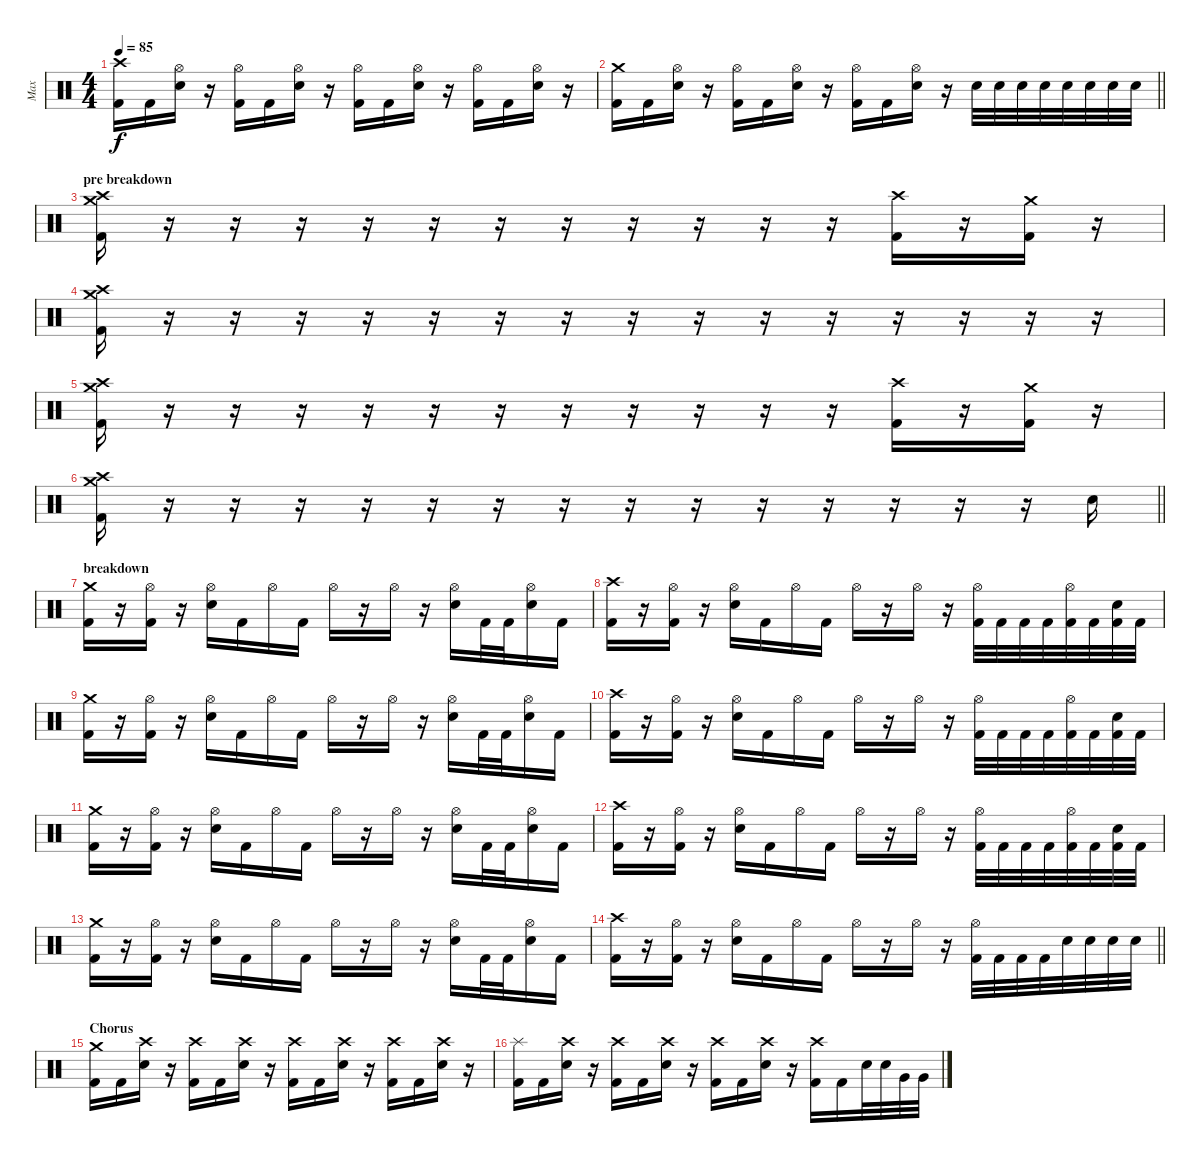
\track ("Max" "Max") {instrument percussion}
\staff {score}
\articulation defaults
\ts (4 4)
\tempo 85
\clef neutral
\ks c
("Crash high (hit)" "Kick (hit) 2").16{dy f} "Kick (hit) 2".16 ("Hi-Hat (open)" "Electric Snare (hit)").16 r.16 ("Hi-Hat (open)" "Kick (hit) 2").16 "Kick (hit) 2".16 ("Hi-Hat (open)" "Electric Snare (hit)").16 r.16 ("Hi-Hat (open)" "Kick (hit) 2").16 "Kick (hit) 2".16 ("Hi-Hat (open)" "Electric Snare (hit)").16 r.16 ("Hi-Hat (open)" "Kick (hit) 2").16 "Kick (hit) 2".16 ("Hi-Hat (open)" "Electric Snare (hit)").16 r.16 |
\barLineRight lightlight
("Crash medium (hit)" "Kick (hit) 2").16 "Kick (hit) 2".16 ("Hi-Hat (open)" "Electric Snare (hit)").16 r.16 ("Hi-Hat (open)" "Kick (hit) 2").16 "Kick (hit) 2".16 ("Hi-Hat (open)" "Electric Snare (hit)").16 r.16 ("Hi-Hat (open)" "Kick (hit) 2").16 "Kick (hit) 2".16 ("Hi-Hat (open)" "Electric Snare (hit)").16 r.16 "Electric Snare (hit)".32 "Electric Snare (hit)".32 "Electric Snare (hit)".32 "Electric Snare (hit)".32 "Electric Snare (hit)".32 "Electric Snare (hit)".32 "Electric Snare (hit)".32 "Electric Snare (hit)".32 |
\section ("" "pre breakdown")
("Crash medium (hit)" "Crash high (hit)" "Kick (hit) 2").16 r.16 r.16 r.16 r.16 r.16 r.16 r.16 r.16 r.16 r.16 r.16 ("Crash high (hit)" "Kick (hit) 2").16 r.16 ("Crash medium (hit)" "Kick (hit) 2").16 r.16 |
("Crash medium (hit)" "Crash high (hit)" "Kick (hit) 2").16 r.16 r.16 r.16 r.16 r.16 r.16 r.16 r.16 r.16 r.16 r.16 r.16 r.16 r.16 r.16 |
("Crash medium (hit)" "Crash high (hit)" "Kick (hit) 2").16 r.16 r.16 r.16 r.16 r.16 r.16 r.16 r.16 r.16 r.16 r.16 ("Crash high (hit)" "Kick (hit) 2").16 r.16 ("Crash medium (hit)" "Kick (hit) 2").16 r.16 |
\barLineRight lightlight
("Crash medium (hit)" "Crash high (hit)" "Kick (hit) 2").16 r.16 r.16 r.16 r.16 r.16 r.16 r.16 r.16 r.16 r.16 r.16 r.16 r.16 r.16 "Electric Snare (hit)".16 |
\section ("" "breakdown")
("Crash medium (hit)" "Kick (hit) 2").16 r.16 ("Hi-Hat (open)" "Kick (hit) 2").16 r.16 ("Hi-Hat (open)" "Electric Snare (hit)").16 "Kick (hit) 2".16 "Hi-Hat (open)".16 "Kick (hit) 2".16 "Hi-Hat (open)".16 r.16 "Hi-Hat (open)".16 r.16 ("Hi-Hat (open)" "Electric Snare (hit)").16 "Kick (hit) 2".32 "Kick (hit) 2".32 ("Hi-Hat (open)" "Electric Snare (hit)").16 "Kick (hit) 2".16 |
("Crash high (hit)" "Kick (hit) 2").16 r.16 ("Hi-Hat (open)" "Kick (hit) 2").16 r.16 ("Hi-Hat (open)" "Electric Snare (hit)").16 "Kick (hit) 2".16 "Hi-Hat (open)".16 "Kick (hit) 2".16 "Hi-Hat (open)".16 r.16 "Hi-Hat (open)".16 r.16 ("Hi-Hat (open)" "Kick (hit) 2").32 "Kick (hit) 2".32 "Kick (hit) 2".32 "Kick (hit) 2".32 ("Hi-Hat (open)" "Kick (hit) 2").32 "Kick (hit) 2".32 ("Electric Snare (hit)" "Kick (hit) 2").32 "Kick (hit) 2".32 |
("Crash medium (hit)" "Kick (hit) 2").16 r.16 ("Hi-Hat (open)" "Kick (hit) 2").16 r.16 ("Hi-Hat (open)" "Electric Snare (hit)").16 "Kick (hit) 2".16 "Hi-Hat (open)".16 "Kick (hit) 2".16 "Hi-Hat (open)".16 r.16 "Hi-Hat (open)".16 r.16 ("Hi-Hat (open)" "Electric Snare (hit)").16 "Kick (hit) 2".32 "Kick (hit) 2".32 ("Hi-Hat (open)" "Electric Snare (hit)").16 "Kick (hit) 2".16 |
("Crash high (hit)" "Kick (hit) 2").16 r.16 ("Hi-Hat (open)" "Kick (hit) 2").16 r.16 ("Hi-Hat (open)" "Electric Snare (hit)").16 "Kick (hit) 2".16 "Hi-Hat (open)".16 "Kick (hit) 2".16 "Hi-Hat (open)".16 r.16 "Hi-Hat (open)".16 r.16 ("Hi-Hat (open)" "Kick (hit) 2").32 "Kick (hit) 2".32 "Kick (hit) 2".32 "Kick (hit) 2".32 ("Hi-Hat (open)" "Kick (hit) 2").32 "Kick (hit) 2".32 ("Electric Snare (hit)" "Kick (hit) 2").32 "Kick (hit) 2".32 |
("Crash medium (hit)" "Kick (hit) 2").16 r.16 ("Hi-Hat (open)" "Kick (hit) 2").16 r.16 ("Hi-Hat (open)" "Electric Snare (hit)").16 "Kick (hit) 2".16 "Hi-Hat (open)".16 "Kick (hit) 2".16 "Hi-Hat (open)".16 r.16 "Hi-Hat (open)".16 r.16 ("Hi-Hat (open)" "Electric Snare (hit)").16 "Kick (hit) 2".32 "Kick (hit) 2".32 ("Hi-Hat (open)" "Electric Snare (hit)").16 "Kick (hit) 2".16 |
("Crash high (hit)" "Kick (hit) 2").16 r.16 ("Hi-Hat (open)" "Kick (hit) 2").16 r.16 ("Hi-Hat (open)" "Electric Snare (hit)").16 "Kick (hit) 2".16 "Hi-Hat (open)".16 "Kick (hit) 2".16 "Hi-Hat (open)".16 r.16 "Hi-Hat (open)".16 r.16 ("Hi-Hat (open)" "Kick (hit) 2").32 "Kick (hit) 2".32 "Kick (hit) 2".32 "Kick (hit) 2".32 ("Hi-Hat (open)" "Kick (hit) 2").32 "Kick (hit) 2".32 ("Electric Snare (hit)" "Kick (hit) 2").32 "Kick (hit) 2".32 |
("Crash medium (hit)" "Kick (hit) 2").16 r.16 ("Hi-Hat (open)" "Kick (hit) 2").16 r.16 ("Hi-Hat (open)" "Electric Snare (hit)").16 "Kick (hit) 2".16 "Hi-Hat (open)".16 "Kick (hit) 2".16 "Hi-Hat (open)".16 r.16 "Hi-Hat (open)".16 r.16 ("Hi-Hat (open)" "Electric Snare (hit)").16 "Kick (hit) 2".32 "Kick (hit) 2".32 ("Hi-Hat (open)" "Electric Snare (hit)").16 "Kick (hit) 2".16 |
\barLineRight lightlight
("Crash high (hit)" "Kick (hit) 2").16 r.16 ("Hi-Hat (open)" "Kick (hit) 2").16 r.16 ("Hi-Hat (open)" "Electric Snare (hit)").16 "Kick (hit) 2".16 "Hi-Hat (open)".16 "Kick (hit) 2".16 "Hi-Hat (open)".16 r.16 "Hi-Hat (open)".16 r.16 ("Hi-Hat (open)" "Kick (hit) 2").32 "Kick (hit) 2".32 "Kick (hit) 2".32 "Kick (hit) 2".32 "Electric Snare (hit)".32 "Electric Snare (hit)".32 "Electric Snare (hit)".32 "Electric Snare (hit)".32 |
\section ("" "Chorus")
("Crash medium (hit)" "Kick (hit) 2").16 "Kick (hit) 2".16 ("Crash high (hit)" "Electric Snare (hit)").16 r.16 ("Crash high (hit)" "Kick (hit) 2").16 "Kick (hit) 2".16 ("Crash high (hit)" "Electric Snare (hit)").16 r.16 ("Crash high (hit)" "Kick (hit) 2").16 "Kick (hit) 2".16 ("Crash high (hit)" "Electric Snare (hit)").16 r.16 ("Crash high (hit)" "Kick (hit) 2").16 "Kick (hit) 2".16 ("Crash high (hit)" "Electric Snare (hit)").16 r.16 |
("Splash (hit)" "Kick (hit) 2").16 "Kick (hit) 2".16 ("Crash high (hit)" "Electric Snare (hit)").16 r.16 ("Crash high (hit)" "Kick (hit) 2").16 "Kick (hit) 2".16 ("Crash high (hit)" "Electric Snare (hit)").16 r.16 ("Crash high (hit)" "Kick (hit) 2").16 "Kick (hit) 2".16 ("Crash high (hit)" "Electric Snare (hit)").16 r.16 ("Crash high (hit)" "Kick (hit) 2").16 "Kick (hit) 2".16 "Electric Snare (hit)".32 "Electric Snare (hit)".32 "Very Low Tom (hit)".32 "Very Low Tom (hit)".32
